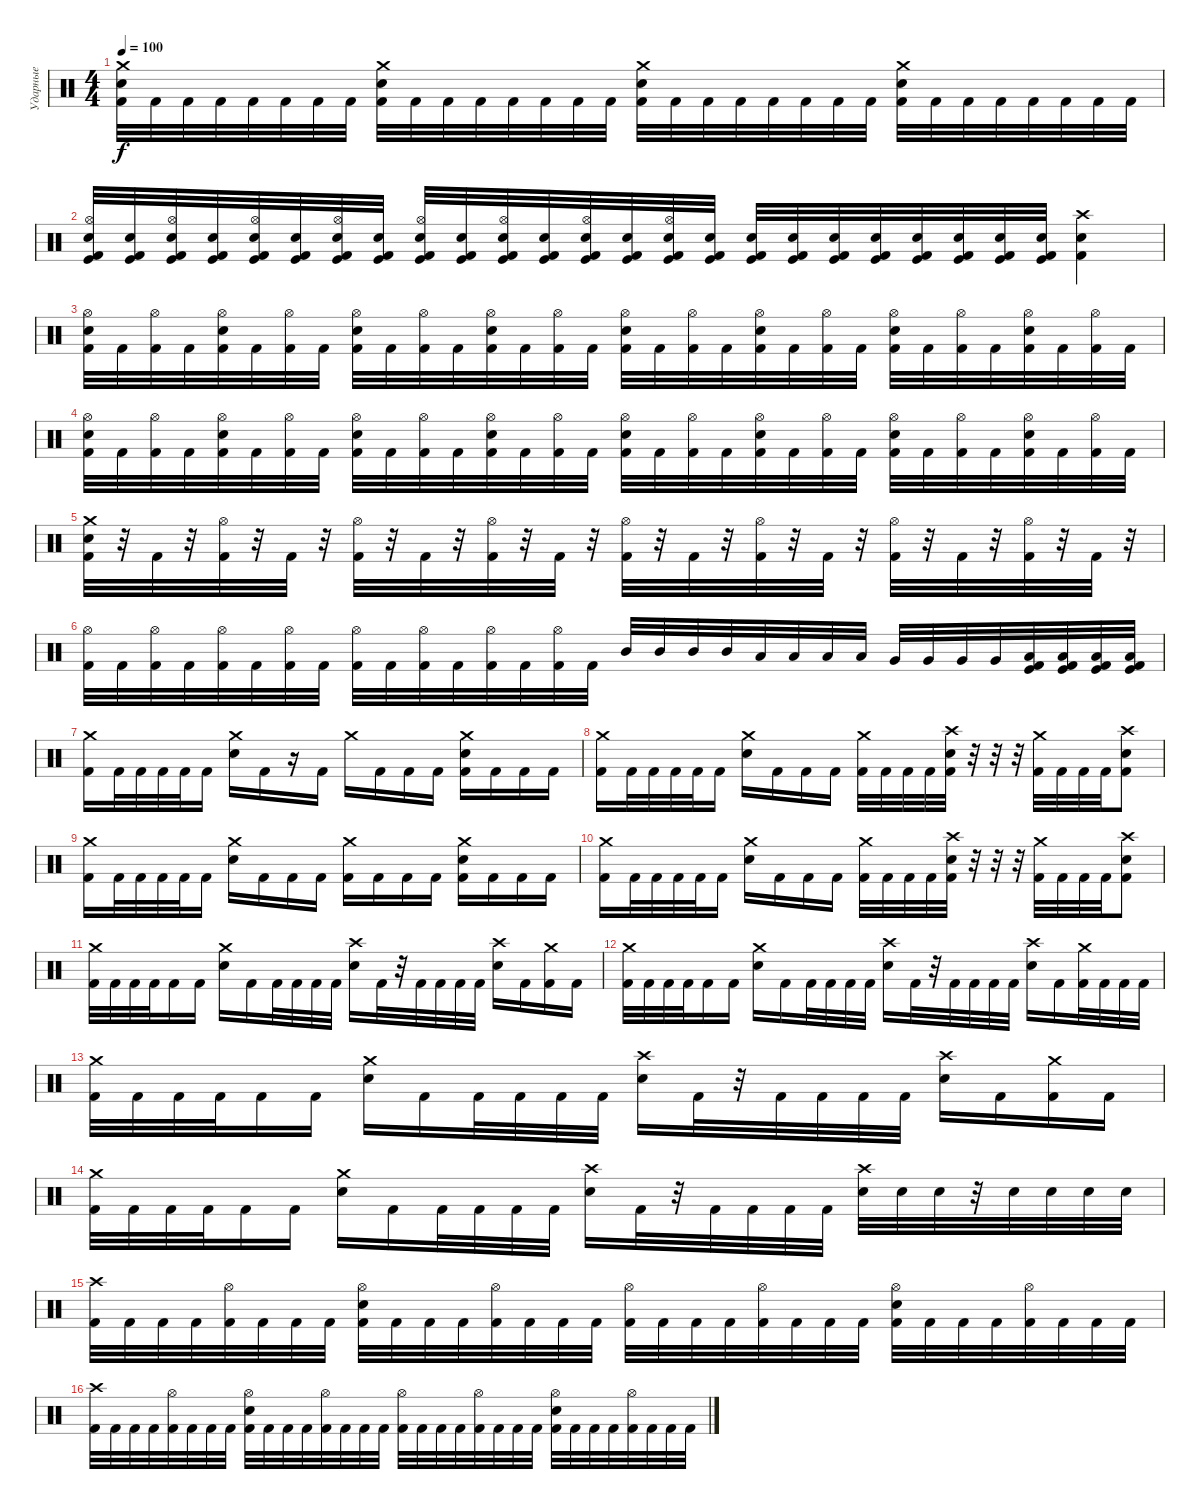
\track ("Ударные" "Ударные") {instrument percussion}
\staff {score}
\articulation defaults
\ts (4 4)
\tempo 100
\clef neutral
\ks c
("Crash medium (hit)" "Snare (hit) 2" "Kick (hit) 2").32{dy f} "Kick (hit) 2".32 "Kick (hit) 2".32 "Kick (hit) 2".32 "Kick (hit) 2".32 "Kick (hit) 2".32 "Kick (hit) 2".32 "Kick (hit) 2".32 ("Crash medium (hit)" "Snare (hit) 2" "Kick (hit) 2").32 "Kick (hit) 2".32 "Kick (hit) 2".32 "Kick (hit) 2".32 "Kick (hit) 2".32 "Kick (hit) 2".32 "Kick (hit) 2".32 "Kick (hit) 2".32 ("Crash medium (hit)" "Snare (hit) 2" "Kick (hit) 2").32 "Kick (hit) 2".32 "Kick (hit) 2".32 "Kick (hit) 2".32 "Kick (hit) 2".32 "Kick (hit) 2".32 "Kick (hit) 2".32 "Kick (hit) 2".32 ("Crash medium (hit)" "Snare (hit) 2" "Kick (hit) 2").32 "Kick (hit) 2".32 "Kick (hit) 2".32 "Kick (hit) 2".32 "Kick (hit) 2".32 "Kick (hit) 2".32 "Kick (hit) 2".32 "Kick (hit) 2".32 |
("Hi-Hat (open)" "Kick (hit) 2" "Snare (hit) 2" "Kick (hit)").32 ("Kick (hit) 2" "Snare (hit) 2" "Kick (hit)").32 ("Hi-Hat (open)" "Kick (hit) 2" "Snare (hit) 2" "Kick (hit)").32 ("Kick (hit) 2" "Snare (hit) 2" "Kick (hit)").32 ("Hi-Hat (open)" "Kick (hit) 2" "Snare (hit) 2" "Kick (hit)").32 ("Kick (hit) 2" "Snare (hit) 2" "Kick (hit)").32 ("Hi-Hat (open)" "Kick (hit) 2" "Snare (hit) 2" "Kick (hit)").32 ("Kick (hit) 2" "Snare (hit) 2" "Kick (hit)").32 ("Hi-Hat (open)" "Kick (hit) 2" "Snare (hit) 2" "Kick (hit)").32 ("Kick (hit) 2" "Snare (hit) 2" "Kick (hit)").32 ("Hi-Hat (open)" "Kick (hit) 2" "Snare (hit) 2" "Kick (hit)").32 ("Kick (hit) 2" "Snare (hit) 2" "Kick (hit)").32 ("Hi-Hat (open)" "Kick (hit) 2" "Snare (hit) 2" "Kick (hit)").32 ("Kick (hit) 2" "Snare (hit) 2" "Kick (hit)").32 ("Hi-Hat (open)" "Kick (hit) 2" "Snare (hit) 2" "Kick (hit)").32 ("Kick (hit) 2" "Snare (hit) 2" "Kick (hit)").32 ("Kick (hit) 2" "Snare (hit) 2" "Kick (hit)").32 ("Kick (hit) 2" "Snare (hit) 2" "Kick (hit)").32 ("Kick (hit) 2" "Snare (hit) 2" "Kick (hit)").32 ("Kick (hit) 2" "Snare (hit) 2" "Kick (hit)").32 ("Kick (hit) 2" "Snare (hit) 2" "Kick (hit)").32 ("Kick (hit) 2" "Snare (hit) 2" "Kick (hit)").32 ("Kick (hit) 2" "Snare (hit) 2" "Kick (hit)").32 ("Kick (hit) 2" "Snare (hit) 2" "Kick (hit)").32 ("Crash high (hit)" "Kick (hit) 2" "Snare (hit) 2").4 |
("Hi-Hat (open)" "Snare (hit) 2" "Kick (hit) 2").32 "Kick (hit) 2".32 ("Hi-Hat (open)" "Kick (hit) 2").32 "Kick (hit) 2".32 ("Hi-Hat (open)" "Snare (hit) 2" "Kick (hit) 2").32 "Kick (hit) 2".32 ("Hi-Hat (open)" "Kick (hit) 2").32 "Kick (hit) 2".32 ("Hi-Hat (open)" "Snare (hit) 2" "Kick (hit) 2").32 "Kick (hit) 2".32 ("Hi-Hat (open)" "Kick (hit) 2").32 "Kick (hit) 2".32 ("Hi-Hat (open)" "Snare (hit) 2" "Kick (hit) 2").32 "Kick (hit) 2".32 ("Hi-Hat (open)" "Kick (hit) 2").32 "Kick (hit) 2".32 ("Hi-Hat (open)" "Snare (hit) 2" "Kick (hit) 2").32 "Kick (hit) 2".32 ("Hi-Hat (open)" "Kick (hit) 2").32 "Kick (hit) 2".32 ("Hi-Hat (open)" "Snare (hit) 2" "Kick (hit) 2").32 "Kick (hit) 2".32 ("Hi-Hat (open)" "Kick (hit) 2").32 "Kick (hit) 2".32 ("Hi-Hat (open)" "Snare (hit) 2" "Kick (hit) 2").32 "Kick (hit) 2".32 ("Hi-Hat (open)" "Kick (hit) 2").32 "Kick (hit) 2".32 ("Hi-Hat (open)" "Snare (hit) 2" "Kick (hit) 2").32 "Kick (hit) 2".32 ("Hi-Hat (open)" "Kick (hit) 2").32 "Kick (hit) 2".32 |
("Hi-Hat (open)" "Snare (hit) 2" "Kick (hit) 2").32 "Kick (hit) 2".32 ("Hi-Hat (open)" "Kick (hit) 2").32 "Kick (hit) 2".32 ("Hi-Hat (open)" "Snare (hit) 2" "Kick (hit) 2").32 "Kick (hit) 2".32 ("Hi-Hat (open)" "Kick (hit) 2").32 "Kick (hit) 2".32 ("Hi-Hat (open)" "Snare (hit) 2" "Kick (hit) 2").32 "Kick (hit) 2".32 ("Hi-Hat (open)" "Kick (hit) 2").32 "Kick (hit) 2".32 ("Hi-Hat (open)" "Snare (hit) 2" "Kick (hit) 2").32 "Kick (hit) 2".32 ("Hi-Hat (open)" "Kick (hit) 2").32 "Kick (hit) 2".32 ("Hi-Hat (open)" "Snare (hit) 2" "Kick (hit) 2").32 "Kick (hit) 2".32 ("Hi-Hat (open)" "Kick (hit) 2").32 "Kick (hit) 2".32 ("Hi-Hat (open)" "Snare (hit) 2" "Kick (hit) 2").32 "Kick (hit) 2".32 ("Hi-Hat (open)" "Kick (hit) 2").32 "Kick (hit) 2".32 ("Hi-Hat (open)" "Snare (hit) 2" "Kick (hit) 2").32 "Kick (hit) 2".32 ("Hi-Hat (open)" "Kick (hit) 2").32 "Kick (hit) 2".32 ("Hi-Hat (open)" "Snare (hit) 2" "Kick (hit) 2").32 "Kick (hit) 2".32 ("Hi-Hat (open)" "Kick (hit) 2").32 "Kick (hit) 2".32 |
("Crash medium (hit)" "Snare (hit) 2" "Kick (hit) 2").32 r.32 "Kick (hit) 2".32 r.32 ("Hi-Hat (open)" "Kick (hit) 2").32 r.32 "Kick (hit) 2".32 r.32 ("Hi-Hat (open)" "Kick (hit) 2").32 r.32 "Kick (hit) 2".32 r.32 ("Hi-Hat (open)" "Kick (hit) 2").32 r.32 "Kick (hit) 2".32 r.32 ("Hi-Hat (open)" "Kick (hit) 2").32 r.32 "Kick (hit) 2".32 r.32 ("Hi-Hat (open)" "Kick (hit) 2").32 r.32 "Kick (hit) 2".32 r.32 ("Hi-Hat (open)" "Kick (hit) 2").32 r.32 "Kick (hit) 2".32 r.32 ("Hi-Hat (open)" "Kick (hit) 2").32 r.32 "Kick (hit) 2".32 r.32 |
("Hi-Hat (open)" "Kick (hit) 2").32 "Kick (hit) 2".32 ("Hi-Hat (open)" "Kick (hit) 2").32 "Kick (hit) 2".32 ("Hi-Hat (open)" "Kick (hit) 2").32 "Kick (hit) 2".32 ("Hi-Hat (open)" "Kick (hit) 2").32 "Kick (hit) 2".32 ("Hi-Hat (open)" "Kick (hit) 2").32 "Kick (hit) 2".32 ("Hi-Hat (open)" "Kick (hit) 2").32 "Kick (hit) 2".32 ("Hi-Hat (open)" "Kick (hit) 2").32 "Kick (hit) 2".32 ("Hi-Hat (open)" "Kick (hit) 2").32 "Kick (hit) 2".32 "Mid Tom (hit)".32 "Mid Tom (hit)".32 "Mid Tom (hit)".32 "Mid Tom (hit)".32 "Low Tom (hit)".32 "Low Tom (hit)".32 "Low Tom (hit)".32 "Low Tom (hit)".32 "Very Low Tom (hit)".32 "Very Low Tom (hit)".32 "Very Low Tom (hit)".32 "Very Low Tom (hit)".32 ("Kick (hit)" "Low Floor Tom (hit)" "Kick (hit) 2").32 ("Kick (hit)" "Low Floor Tom (hit)" "Kick (hit) 2").32 ("Kick (hit)" "Low Floor Tom (hit)" "Kick (hit) 2").32 ("Kick (hit)" "Low Floor Tom (hit)" "Kick (hit) 2").32 |
("Crash medium (hit)" "Kick (hit) 2").16 "Kick (hit) 2".32 "Kick (hit) 2".32 "Kick (hit) 2".32 "Kick (hit) 2".32 "Kick (hit) 2"{tr (36 32)}.16 ("Crash medium (hit)" "Snare (hit) 2").16 "Kick (hit) 2".16 r.16 "Kick (hit) 2".16 "Crash medium (hit)".16 "Kick (hit) 2".16 "Kick (hit) 2".16 "Kick (hit) 2"{tr (36 32)}.16 ("Crash medium (hit)" "Snare (hit) 2" "Kick (hit) 2"{tr (36 32)}).16 "Kick (hit) 2".16 "Kick (hit) 2"{tr (36 32)}.16 "Kick (hit) 2".16 |
("Crash medium (hit)" "Kick (hit) 2").16 "Kick (hit) 2".32 "Kick (hit) 2".32 "Kick (hit) 2".32 "Kick (hit) 2".32 "Kick (hit) 2"{tr (36 32)}.16 ("Crash medium (hit)" "Snare (hit) 2").16 "Kick (hit) 2".16 "Kick (hit) 2".16 "Kick (hit) 2".16 ("Crash medium (hit)" "Kick (hit) 2").32 "Kick (hit) 2".32 "Kick (hit) 2".32 "Kick (hit) 2".32 ("Crash high (hit)" "Snare (hit) 2" "Kick (hit) 2").32 r.32 r.32 r.32 ("Crash medium (hit)" "Kick (hit) 2").32 "Kick (hit) 2".32 "Kick (hit) 2".32 "Kick (hit) 2".32 ("Crash high (hit)" "Snare (hit) 2" "Kick (hit) 2").8 |
("Crash medium (hit)" "Kick (hit) 2").16 "Kick (hit) 2".32 "Kick (hit) 2".32 "Kick (hit) 2".32 "Kick (hit) 2".32 "Kick (hit) 2"{tr (36 32)}.16 ("Crash medium (hit)" "Snare (hit) 2").16 "Kick (hit) 2".16 "Kick (hit) 2".16 "Kick (hit) 2".16 ("Crash medium (hit)" "Kick (hit) 2").16 "Kick (hit) 2".16 "Kick (hit) 2".16 "Kick (hit) 2"{tr (36 32)}.16 ("Crash medium (hit)" "Snare (hit) 2" "Kick (hit) 2"{tr (36 32)}).16 "Kick (hit) 2".16 "Kick (hit) 2"{tr (36 32)}.16 "Kick (hit) 2".16 |
("Crash medium (hit)" "Kick (hit) 2").16 "Kick (hit) 2".32 "Kick (hit) 2".32 "Kick (hit) 2".32 "Kick (hit) 2".32 "Kick (hit) 2"{tr (36 32)}.16 ("Crash medium (hit)" "Snare (hit) 2").16 "Kick (hit) 2".16 "Kick (hit) 2".16 "Kick (hit) 2".16 ("Crash medium (hit)" "Kick (hit) 2").32 "Kick (hit) 2".32 "Kick (hit) 2".32 "Kick (hit) 2".32 ("Crash high (hit)" "Snare (hit) 2" "Kick (hit) 2").32 r.32 r.32 r.32 ("Crash medium (hit)" "Kick (hit) 2").32 "Kick (hit) 2".32 "Kick (hit) 2".32 "Kick (hit) 2".32 ("Crash high (hit)" "Snare (hit) 2" "Kick (hit) 2").8 |
("Crash medium (hit)" "Kick (hit) 2").32 "Kick (hit) 2".32 "Kick (hit) 2".32 "Kick (hit) 2".32 "Kick (hit) 2".16 "Kick (hit) 2".16 ("Crash medium (hit)" "Snare (hit) 2").16 "Kick (hit) 2".16 "Kick (hit) 2".32 "Kick (hit) 2".32 "Kick (hit) 2".32 "Kick (hit) 2".32 ("Crash high (hit)" "Snare (hit) 2").16 "Kick (hit) 2".32 r.32 "Kick (hit) 2".32 "Kick (hit) 2".32 "Kick (hit) 2".32 "Kick (hit) 2".32 ("Crash high (hit)" "Snare (hit) 2").16 "Kick (hit) 2".16 ("Crash medium (hit)" "Kick (hit) 2").16 "Kick (hit) 2".16 |
("Crash medium (hit)" "Kick (hit) 2").32 "Kick (hit) 2".32 "Kick (hit) 2".32 "Kick (hit) 2".32 "Kick (hit) 2".16 "Kick (hit) 2".16 ("Crash medium (hit)" "Snare (hit) 2").16 "Kick (hit) 2".16 "Kick (hit) 2".32 "Kick (hit) 2".32 "Kick (hit) 2".32 "Kick (hit) 2".32 ("Crash high (hit)" "Snare (hit) 2").16 "Kick (hit) 2".32 r.32 "Kick (hit) 2".32 "Kick (hit) 2".32 "Kick (hit) 2".32 "Kick (hit) 2".32 ("Crash high (hit)" "Snare (hit) 2").16 "Kick (hit) 2".16 ("Crash medium (hit)" "Kick (hit) 2").32 "Kick (hit) 2".32 "Kick (hit) 2".32 "Kick (hit) 2".32 |
("Crash medium (hit)" "Kick (hit) 2").32 "Kick (hit) 2".32 "Kick (hit) 2".32 "Kick (hit) 2".32 "Kick (hit) 2".16 "Kick (hit) 2".16 ("Crash medium (hit)" "Snare (hit) 2").16 "Kick (hit) 2".16 "Kick (hit) 2".32 "Kick (hit) 2".32 "Kick (hit) 2".32 "Kick (hit) 2".32 ("Crash high (hit)" "Snare (hit) 2").16 "Kick (hit) 2".32 r.32 "Kick (hit) 2".32 "Kick (hit) 2".32 "Kick (hit) 2".32 "Kick (hit) 2".32 ("Crash high (hit)" "Snare (hit) 2").16 "Kick (hit) 2".16 ("Crash medium (hit)" "Kick (hit) 2").16 "Kick (hit) 2".16 |
("Crash medium (hit)" "Kick (hit) 2").32 "Kick (hit) 2".32 "Kick (hit) 2".32 "Kick (hit) 2".32 "Kick (hit) 2".16 "Kick (hit) 2".16 ("Crash medium (hit)" "Snare (hit) 2").16 "Kick (hit) 2".16 "Kick (hit) 2".32 "Kick (hit) 2".32 "Kick (hit) 2".32 "Kick (hit) 2".32 ("Crash high (hit)" "Snare (hit) 2").16 "Kick (hit) 2".32 r.32 "Kick (hit) 2".32 "Kick (hit) 2".32 "Kick (hit) 2".32 "Kick (hit) 2".32 ("Crash high (hit)" "Snare (hit) 2").32 "Snare (hit) 2".32 "Snare (hit) 2".32 r.32 "Snare (hit) 2".32 "Snare (hit) 2".32 "Snare (hit) 2".32 "Snare (hit) 2".32 |
("Crash high (hit)" "Kick (hit) 2").32 "Kick (hit) 2".32 "Kick (hit) 2".32 "Kick (hit) 2".32 ("Hi-Hat (open)" "Kick (hit) 2").32 "Kick (hit) 2".32 "Kick (hit) 2".32 "Kick (hit) 2".32 ("Hi-Hat (open)" "Snare (hit) 2" "Kick (hit) 2").32 "Kick (hit) 2".32 "Kick (hit) 2".32 "Kick (hit) 2".32 ("Hi-Hat (open)" "Kick (hit) 2").32 "Kick (hit) 2".32 "Kick (hit) 2".32 "Kick (hit) 2".32 ("Hi-Hat (open)" "Kick (hit) 2").32 "Kick (hit) 2".32 "Kick (hit) 2".32 "Kick (hit) 2".32 ("Hi-Hat (open)" "Kick (hit) 2").32 "Kick (hit) 2".32 "Kick (hit) 2".32 "Kick (hit) 2".32 ("Hi-Hat (open)" "Snare (hit) 2" "Kick (hit) 2").32 "Kick (hit) 2".32 "Kick (hit) 2".32 "Kick (hit) 2".32 ("Hi-Hat (open)" "Kick (hit) 2").32 "Kick (hit) 2".32 "Kick (hit) 2".32 "Kick (hit) 2".32 |
("Crash high (hit)" "Kick (hit) 2").32 "Kick (hit) 2".32 "Kick (hit) 2".32 "Kick (hit) 2".32 ("Hi-Hat (open)" "Kick (hit) 2").32 "Kick (hit) 2".32 "Kick (hit) 2".32 "Kick (hit) 2".32 ("Hi-Hat (open)" "Snare (hit) 2" "Kick (hit) 2").32 "Kick (hit) 2".32 "Kick (hit) 2".32 "Kick (hit) 2".32 ("Hi-Hat (open)" "Kick (hit) 2").32 "Kick (hit) 2".32 "Kick (hit) 2".32 "Kick (hit) 2".32 ("Hi-Hat (open)" "Kick (hit) 2").32 "Kick (hit) 2".32 "Kick (hit) 2".32 "Kick (hit) 2".32 ("Hi-Hat (open)" "Kick (hit) 2").32 "Kick (hit) 2".32 "Kick (hit) 2".32 "Kick (hit) 2".32 ("Hi-Hat (open)" "Snare (hit) 2" "Kick (hit) 2").32 "Kick (hit) 2".32 "Kick (hit) 2".32 "Kick (hit) 2".32 ("Hi-Hat (open)" "Kick (hit) 2").32 "Kick (hit) 2".32 "Kick (hit) 2".32 "Kick (hit) 2".32
